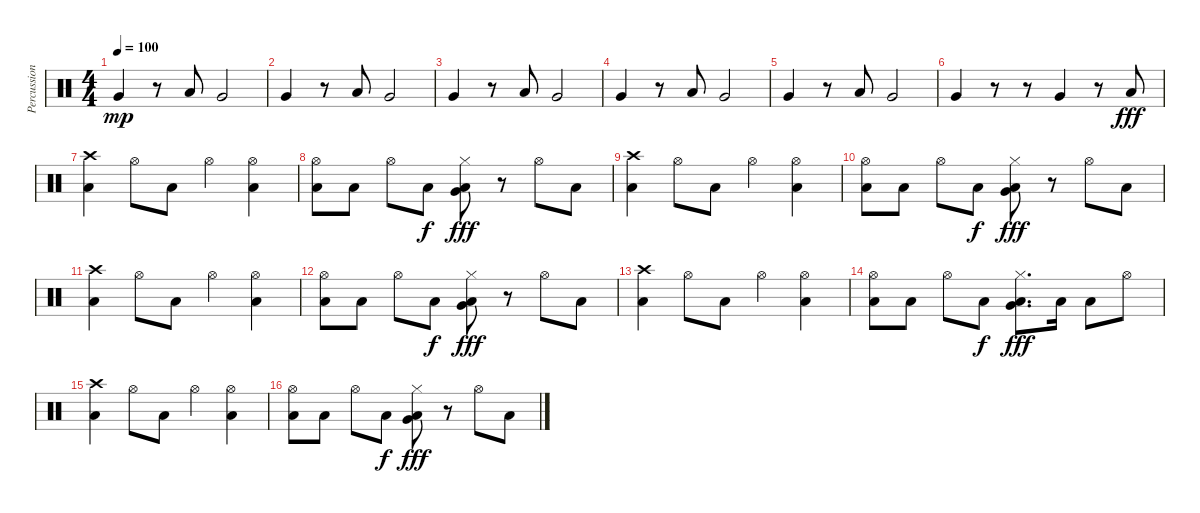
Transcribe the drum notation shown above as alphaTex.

\track ("Percussion" "Percussion") {instrument percussion}
\staff {score}
\articulation defaults
\ts (4 4)
\tempo 100
\clef neutral
\ks c "Very Low Tom (hit)".4{dy mp}
r.8 "Low Tom (hit)".8 "Very Low Tom (hit)".2 |
"Very Low Tom (hit)".4 r.8 "Low Tom (hit)".8 "Very Low Tom (hit)".2 |
"Very Low Tom (hit)".4 r.8 "Low Tom (hit)".8 "Very Low Tom (hit)".2 |
"Very Low Tom (hit)".4 r.8 "Low Tom (hit)".8 "Very Low Tom (hit)".2 |
"Very Low Tom (hit)".4 r.8 "Low Tom (hit)".8 "Very Low Tom (hit)".2 |
"Very Low Tom (hit)".4 r.8 r.8 "Very Low Tom (hit)".4 r.8 "Low Tom (hit)".8{dy fff} |
("Low Floor Tom (hit)" "Crash high (hit)").4 "Hi-Hat (open)".8 "Low Tom (hit)".8 "Hi-Hat (open)".4 ("Low Floor Tom (hit)" "Hi-Hat (open)").4 |
("Low Tom (hit)" "Hi-Hat (open)").8 "Low Tom (hit)".8 "Hi-Hat (open)".8 "Low Floor Tom (hit)".8{dy f} ("Low Floor Tom (hit)" "Very Low Tom (hit)" "Hi-Hat (closed)").8{dy fff} r.8 "Hi-Hat (open)".8 "Low Tom (hit)".8 |
("Low Floor Tom (hit)" "Crash high (hit)").4 "Hi-Hat (open)".8 "Low Tom (hit)".8 "Hi-Hat (open)".4 ("Low Floor Tom (hit)" "Hi-Hat (open)").4 |
("Low Tom (hit)" "Hi-Hat (open)").8 "Low Tom (hit)".8 "Hi-Hat (open)".8 "Low Floor Tom (hit)".8{dy f} ("Low Floor Tom (hit)" "Very Low Tom (hit)" "Hi-Hat (closed)").8{dy fff} r.8 "Hi-Hat (open)".8 "Low Tom (hit)".8 |
("Low Floor Tom (hit)" "Crash high (hit)").4 "Hi-Hat (open)".8 "Low Tom (hit)".8 "Hi-Hat (open)".4 ("Low Floor Tom (hit)" "Hi-Hat (open)").4 |
("Low Tom (hit)" "Hi-Hat (open)").8 "Low Tom (hit)".8 "Hi-Hat (open)".8 "Low Floor Tom (hit)".8{dy f} ("Low Floor Tom (hit)" "Very Low Tom (hit)" "Hi-Hat (closed)").8{dy fff} r.8 "Hi-Hat (open)".8 "Low Tom (hit)".8 |
("Low Floor Tom (hit)" "Crash high (hit)").4 "Hi-Hat (open)".8 "Low Tom (hit)".8 "Hi-Hat (open)".4 ("Low Floor Tom (hit)" "Hi-Hat (open)").4 |
("Low Tom (hit)" "Hi-Hat (open)").8 "Low Tom (hit)".8 "Hi-Hat (open)".8 "Low Floor Tom (hit)".8{dy f} ("Low Floor Tom (hit)" "Very Low Tom (hit)" "Hi-Hat (closed)").8{d dy fff} "Low Tom (hit)".16 "Low Tom (hit)".8 "Hi-Hat (open)".8 |
("Low Floor Tom (hit)" "Crash high (hit)").4 "Hi-Hat (open)".8 "Low Tom (hit)".8 "Hi-Hat (open)".4 ("Low Floor Tom (hit)" "Hi-Hat (open)").4 |
("Low Tom (hit)" "Hi-Hat (open)").8 "Low Tom (hit)".8 "Hi-Hat (open)".8 "Low Floor Tom (hit)".8{dy f} ("Low Floor Tom (hit)" "Very Low Tom (hit)" "Hi-Hat (closed)").8{dy fff} r.8 "Hi-Hat (open)".8 "Low Tom (hit)".8
